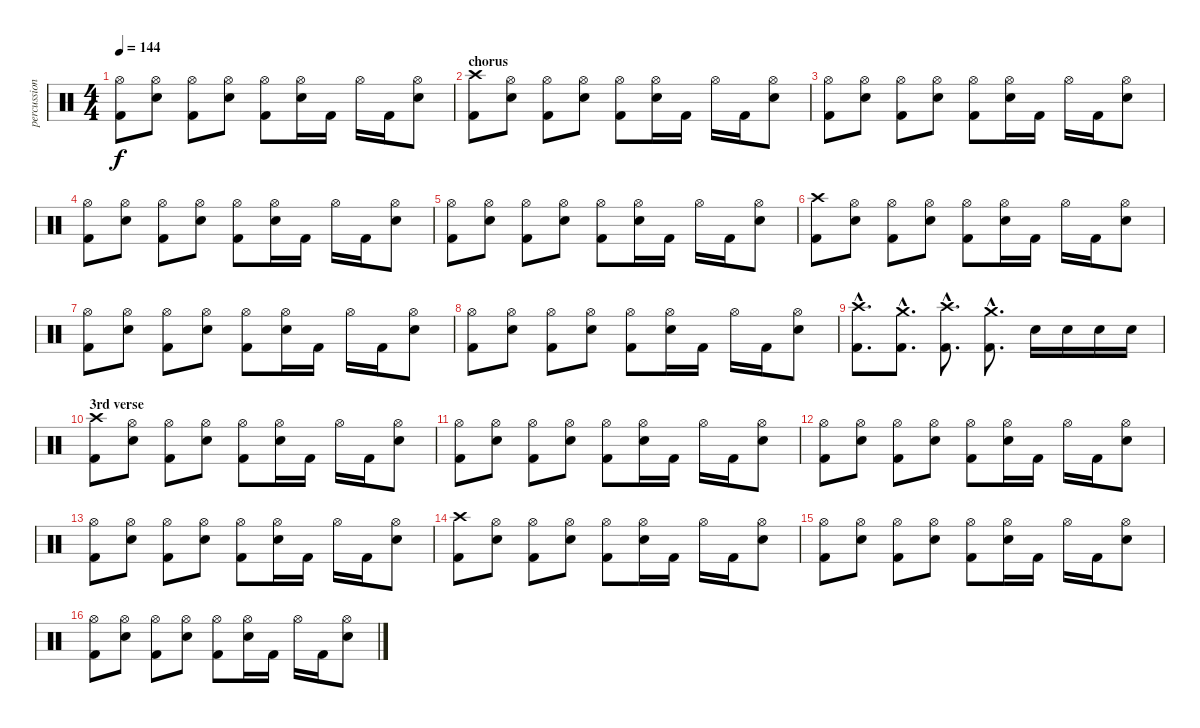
\track ("percussion" "percussion") {instrument percussion}
\staff {score}
\articulation defaults
\ts (4 4)
\tempo 144
\clef neutral
\ks c
("Hi-Hat (open)" "Kick (hit) 2").8{dy f} ("Hi-Hat (open)" "Electric Snare (hit)").8 ("Hi-Hat (open)" "Kick (hit) 2").8 ("Hi-Hat (open)" "Electric Snare (hit)").8 ("Hi-Hat (open)" "Kick (hit) 2").8 ("Hi-Hat (open)" "Electric Snare (hit)").16 "Kick (hit) 2".16 "Hi-Hat (open)".16 "Kick (hit) 2".16 ("Hi-Hat (open)" "Electric Snare (hit)").8 |
\section ("" "chorus")
("Crash high (hit)" "Kick (hit) 2").8 ("Hi-Hat (open)" "Electric Snare (hit)").8 ("Hi-Hat (open)" "Kick (hit) 2").8 ("Hi-Hat (open)" "Electric Snare (hit)").8 ("Hi-Hat (open)" "Kick (hit) 2").8 ("Hi-Hat (open)" "Electric Snare (hit)").16 "Kick (hit) 2".16 "Hi-Hat (open)".16 "Kick (hit) 2".16 ("Hi-Hat (open)" "Electric Snare (hit)").8 |
("Hi-Hat (open)" "Kick (hit) 2").8 ("Hi-Hat (open)" "Electric Snare (hit)").8 ("Hi-Hat (open)" "Kick (hit) 2").8 ("Hi-Hat (open)" "Electric Snare (hit)").8 ("Hi-Hat (open)" "Kick (hit) 2").8 ("Hi-Hat (open)" "Electric Snare (hit)").16 "Kick (hit) 2".16 "Hi-Hat (open)".16 "Kick (hit) 2".16 ("Hi-Hat (open)" "Electric Snare (hit)").8 |
("Hi-Hat (open)" "Kick (hit) 2").8 ("Hi-Hat (open)" "Electric Snare (hit)").8 ("Hi-Hat (open)" "Kick (hit) 2").8 ("Hi-Hat (open)" "Electric Snare (hit)").8 ("Hi-Hat (open)" "Kick (hit) 2").8 ("Hi-Hat (open)" "Electric Snare (hit)").16 "Kick (hit) 2".16 "Hi-Hat (open)".16 "Kick (hit) 2".16 ("Hi-Hat (open)" "Electric Snare (hit)").8 |
("Hi-Hat (open)" "Kick (hit) 2").8 ("Hi-Hat (open)" "Electric Snare (hit)").8 ("Hi-Hat (open)" "Kick (hit) 2").8 ("Hi-Hat (open)" "Electric Snare (hit)").8 ("Hi-Hat (open)" "Kick (hit) 2").8 ("Hi-Hat (open)" "Electric Snare (hit)").16 "Kick (hit) 2".16 "Hi-Hat (open)".16 "Kick (hit) 2".16 ("Hi-Hat (open)" "Electric Snare (hit)").8 |
("Crash high (hit)" "Kick (hit) 2").8 ("Hi-Hat (open)" "Electric Snare (hit)").8 ("Hi-Hat (open)" "Kick (hit) 2").8 ("Hi-Hat (open)" "Electric Snare (hit)").8 ("Hi-Hat (open)" "Kick (hit) 2").8 ("Hi-Hat (open)" "Electric Snare (hit)").16 "Kick (hit) 2".16 "Hi-Hat (open)".16 "Kick (hit) 2".16 ("Hi-Hat (open)" "Electric Snare (hit)").8 |
("Hi-Hat (open)" "Kick (hit) 2").8 ("Hi-Hat (open)" "Electric Snare (hit)").8 ("Hi-Hat (open)" "Kick (hit) 2").8 ("Hi-Hat (open)" "Electric Snare (hit)").8 ("Hi-Hat (open)" "Kick (hit) 2").8 ("Hi-Hat (open)" "Electric Snare (hit)").16 "Kick (hit) 2".16 "Hi-Hat (open)".16 "Kick (hit) 2".16 ("Hi-Hat (open)" "Electric Snare (hit)").8 |
("Hi-Hat (open)" "Kick (hit) 2").8 ("Hi-Hat (open)" "Electric Snare (hit)").8 ("Hi-Hat (open)" "Kick (hit) 2").8 ("Hi-Hat (open)" "Electric Snare (hit)").8 ("Hi-Hat (open)" "Kick (hit) 2").8 ("Hi-Hat (open)" "Electric Snare (hit)").16 "Kick (hit) 2".16 "Hi-Hat (open)".16 "Kick (hit) 2".16 ("Hi-Hat (open)" "Electric Snare (hit)").8 |
("Crash high (hit)"{hac} "Kick (hit) 2"{hac}).8{d} ("Crash medium (hit)"{hac} "Kick (hit) 2"{hac}).8{d} ("Crash high (hit)"{hac} "Kick (hit) 2"{hac}).8{d} ("Crash medium (hit)"{hac} "Kick (hit) 2"{hac}).8{d} "Electric Snare (hit)".16 "Electric Snare (hit)".16 "Electric Snare (hit)".16 "Electric Snare (hit)".16 |
\section ("" "3rd verse")
("Crash high (hit)" "Kick (hit) 2").8 ("Hi-Hat (open)" "Electric Snare (hit)").8 ("Hi-Hat (open)" "Kick (hit) 2").8 ("Hi-Hat (open)" "Electric Snare (hit)").8 ("Hi-Hat (open)" "Kick (hit) 2").8 ("Hi-Hat (open)" "Electric Snare (hit)").16 "Kick (hit) 2".16 "Hi-Hat (open)".16 "Kick (hit) 2".16 ("Hi-Hat (open)" "Electric Snare (hit)").8 |
("Hi-Hat (open)" "Kick (hit) 2").8 ("Hi-Hat (open)" "Electric Snare (hit)").8 ("Hi-Hat (open)" "Kick (hit) 2").8 ("Hi-Hat (open)" "Electric Snare (hit)").8 ("Hi-Hat (open)" "Kick (hit) 2").8 ("Hi-Hat (open)" "Electric Snare (hit)").16 "Kick (hit) 2".16 "Hi-Hat (open)".16 "Kick (hit) 2".16 ("Hi-Hat (open)" "Electric Snare (hit)").8 |
("Hi-Hat (open)" "Kick (hit) 2").8 ("Hi-Hat (open)" "Electric Snare (hit)").8 ("Hi-Hat (open)" "Kick (hit) 2").8 ("Hi-Hat (open)" "Electric Snare (hit)").8 ("Hi-Hat (open)" "Kick (hit) 2").8 ("Hi-Hat (open)" "Electric Snare (hit)").16 "Kick (hit) 2".16 "Hi-Hat (open)".16 "Kick (hit) 2".16 ("Hi-Hat (open)" "Electric Snare (hit)").8 |
("Hi-Hat (open)" "Kick (hit) 2").8 ("Hi-Hat (open)" "Electric Snare (hit)").8 ("Hi-Hat (open)" "Kick (hit) 2").8 ("Hi-Hat (open)" "Electric Snare (hit)").8 ("Hi-Hat (open)" "Kick (hit) 2").8 ("Hi-Hat (open)" "Electric Snare (hit)").16 "Kick (hit) 2".16 "Hi-Hat (open)".16 "Kick (hit) 2".16 ("Hi-Hat (open)" "Electric Snare (hit)").8 |
("Crash high (hit)" "Kick (hit) 2").8 ("Hi-Hat (open)" "Electric Snare (hit)").8 ("Hi-Hat (open)" "Kick (hit) 2").8 ("Hi-Hat (open)" "Electric Snare (hit)").8 ("Hi-Hat (open)" "Kick (hit) 2").8 ("Hi-Hat (open)" "Electric Snare (hit)").16 "Kick (hit) 2".16 "Hi-Hat (open)".16 "Kick (hit) 2".16 ("Hi-Hat (open)" "Electric Snare (hit)").8 |
("Hi-Hat (open)" "Kick (hit) 2").8 ("Hi-Hat (open)" "Electric Snare (hit)").8 ("Hi-Hat (open)" "Kick (hit) 2").8 ("Hi-Hat (open)" "Electric Snare (hit)").8 ("Hi-Hat (open)" "Kick (hit) 2").8 ("Hi-Hat (open)" "Electric Snare (hit)").16 "Kick (hit) 2".16 "Hi-Hat (open)".16 "Kick (hit) 2".16 ("Hi-Hat (open)" "Electric Snare (hit)").8 |
("Hi-Hat (open)" "Kick (hit) 2").8 ("Hi-Hat (open)" "Electric Snare (hit)").8 ("Hi-Hat (open)" "Kick (hit) 2").8 ("Hi-Hat (open)" "Electric Snare (hit)").8 ("Hi-Hat (open)" "Kick (hit) 2").8 ("Hi-Hat (open)" "Electric Snare (hit)").16 "Kick (hit) 2".16 "Hi-Hat (open)".16 "Kick (hit) 2".16 ("Hi-Hat (open)" "Electric Snare (hit)").8
